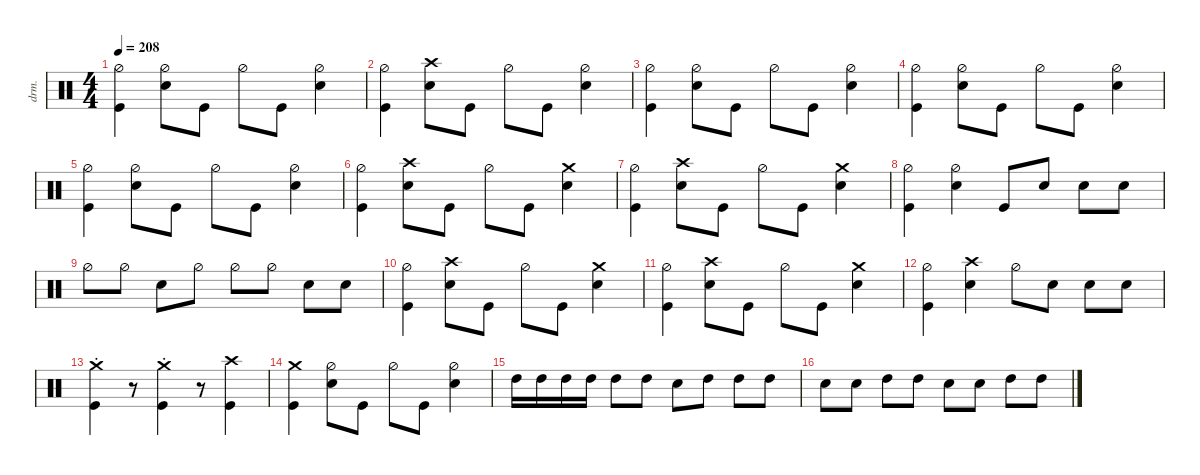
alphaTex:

\defaultSystemsLayout 4
\hideDynamics
\bracketExtendMode nobrackets
\otherSystemsTrackNameOrientation horizontal
\track ("Drums" "drm.") {multiBarRest instrument percussion}
\staff
\articulation defaults
\ts (4 4)
\tempo 208
\clef neutral
\ks c
("Kick (hit)" "Hi-Hat (half)").4{dy f} ("Snare (hit) 2" "Hi-Hat (half)").8 "Kick (hit)".8 "Hi-Hat (half)".8 "Kick (hit)".8 ("Snare (hit) 2" "Hi-Hat (half)").4 |
("Kick (hit)" "Hi-Hat (half)").4 ("Snare (hit) 2" "Crash high (hit)").8 "Kick (hit)".8 "Hi-Hat (half)".8 "Kick (hit)".8 ("Snare (hit) 2" "Hi-Hat (half)").4 |
("Kick (hit)" "Hi-Hat (half)").4 ("Snare (hit) 2" "Hi-Hat (half)").8 "Kick (hit)".8 "Hi-Hat (half)".8 "Kick (hit)".8 ("Snare (hit) 2" "Hi-Hat (half)").4 |
("Kick (hit)" "Hi-Hat (half)").4 ("Snare (hit) 2" "Hi-Hat (half)").8 "Kick (hit)".8 "Hi-Hat (half)".8 "Kick (hit)".8 ("Snare (hit) 2" "Hi-Hat (half)").4 |
("Kick (hit)" "Hi-Hat (half)").4 ("Snare (hit) 2" "Hi-Hat (half)").8 "Kick (hit)".8 "Hi-Hat (half)".8 "Kick (hit)".8 ("Snare (hit) 2" "Hi-Hat (half)").4 |
("Kick (hit)" "Hi-Hat (half)").4 ("Snare (hit) 2" "Crash high (hit)").8 "Kick (hit)".8 "Hi-Hat (half)".8 "Kick (hit)".8 ("Snare (hit) 2" "Crash medium (hit)").4 |
("Kick (hit)" "Hi-Hat (half)").4 ("Snare (hit) 2" "Crash high (hit)").8 "Kick (hit)".8 "Hi-Hat (half)".8 "Kick (hit)".8 ("Snare (hit) 2" "Crash medium (hit)").4 |
("Hi-Hat (half)" "Kick (hit)").4 ("Hi-Hat (half)" "Snare (hit) 2").4 "Kick (hit)".8 "Snare (hit) 2".8 "Snare (hit) 2".8 "Snare (hit) 2".8 |
"Hi-Hat (half)".8 "Hi-Hat (half)".8 "Snare (hit) 2".8 "Hi-Hat (half)".8 "Hi-Hat (half)".8 "Hi-Hat (half)".8 "Snare (hit) 2".8 "Snare (hit) 2".8 |
("Kick (hit)" "Hi-Hat (half)").4 ("Snare (hit) 2" "Crash high (hit)").8 "Kick (hit)".8 "Hi-Hat (half)".8 "Kick (hit)".8 ("Snare (hit) 2" "Crash medium (hit)").4 |
("Kick (hit)" "Hi-Hat (half)").4 ("Snare (hit) 2" "Crash high (hit)").8 "Kick (hit)".8 "Hi-Hat (half)".8 "Kick (hit)".8 ("Snare (hit) 2" "Crash medium (hit)").4 |
("Kick (hit)" "Hi-Hat (half)").4 ("Snare (hit) 2" "Crash high (hit)").4 "Hi-Hat (half)".8 "Snare (hit) 2".8 "Snare (hit) 2".8 "Snare (hit) 2".8 |
("Kick (hit)" "Crash medium (hit)"{st}).4 r.8 ("Kick (hit)" "Crash medium (hit)"{st}).4 r.8 ("Crash high (hit)" "Kick (hit)").4 |
("Kick (hit)" "Crash medium (hit)").4 ("Snare (hit) 2" "Hi-Hat (half)").8 "Kick (hit)".8 "Hi-Hat (half)".8 "Kick (hit)".8 ("Snare (hit) 2" "Hi-Hat (half)").4 |
"High Tom (hit)".16{dy ff} "High Tom (hit)".16 "High Tom (hit)".16 "High Tom (hit)".16 "High Tom (hit)".8 "High Tom (hit)".8 "Snare (hit) 2".8{dy f} "High Tom (hit)".8{dy ff} "High Tom (hit)".8 "High Tom (hit)".8 |
"Snare (hit) 2".8{dy f} "Snare (hit) 2".8 "High Tom (hit)".8{dy ff} "High Tom (hit)".8 "Snare (hit) 2".8{dy f} "Snare (hit) 2".8 "High Tom (hit)".8{dy ff} "High Tom (hit)".8
